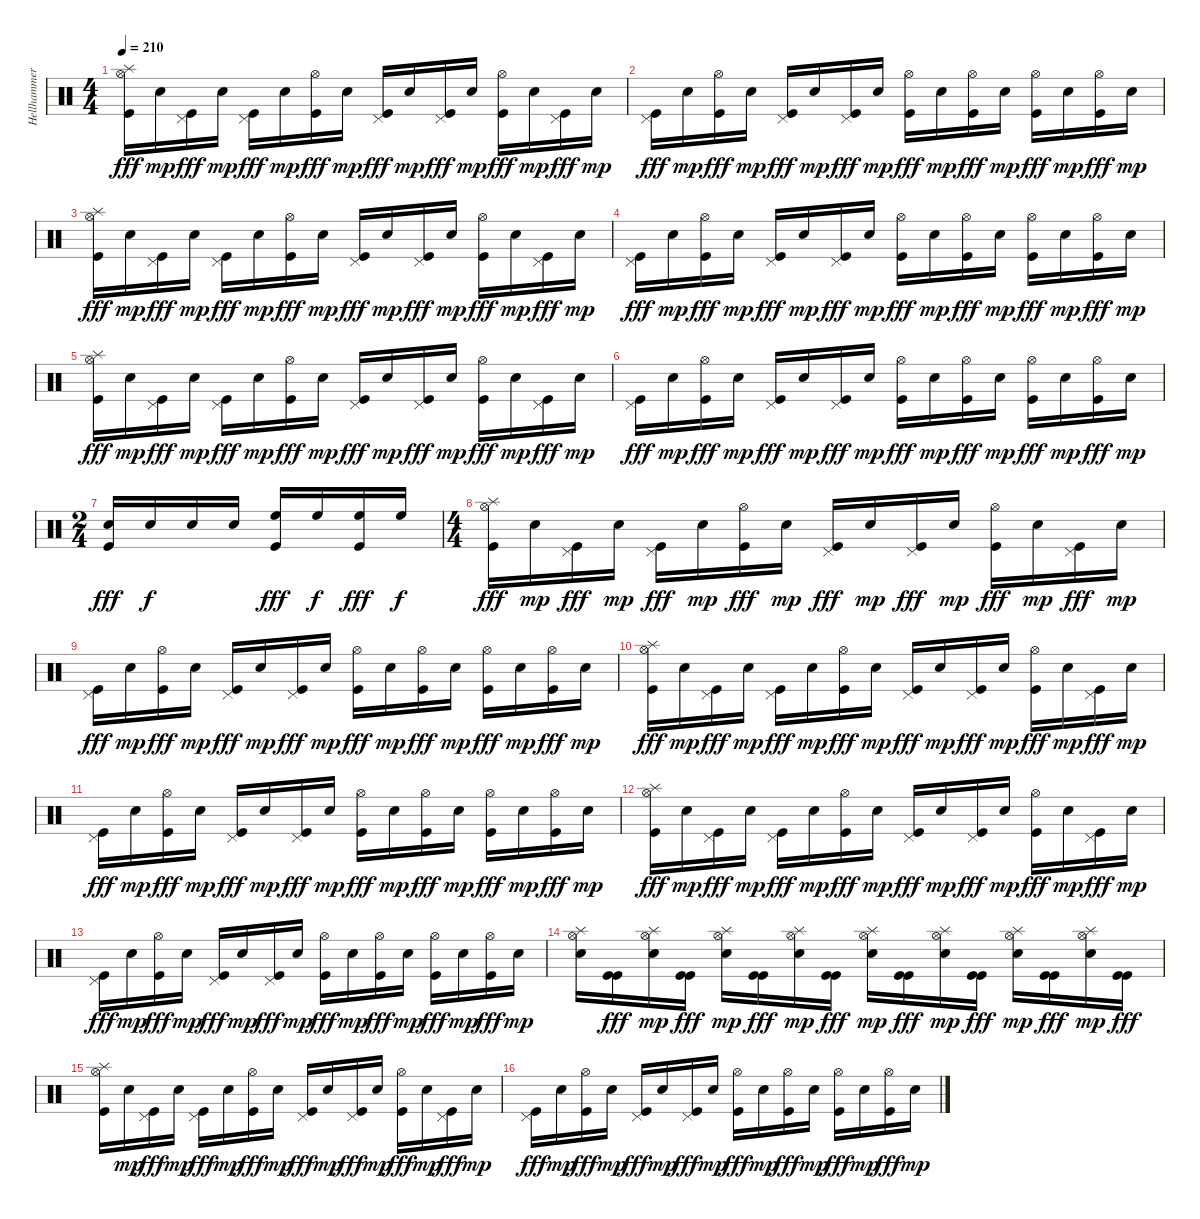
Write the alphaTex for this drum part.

\track ("Hellhammer" "Hellhammer") {instrument percussion}
\staff {score}
\articulation defaults
\ts (4 4)
\tempo 210
\clef neutral
\ks c
("Splash (hit)" "Hi-Hat (open)" "Kick (hit)").16{dy fff} "Electric Snare (hit)".16{dy mp} ("Pedal Hi-Hat (hit)" "Kick (hit)").16{dy fff} "Electric Snare (hit)".16{dy mp} ("Pedal Hi-Hat (hit)" "Kick (hit)").16{dy fff} "Electric Snare (hit)".16{dy mp} ("Hi-Hat (open)" "Kick (hit)").16{dy fff} "Electric Snare (hit)".16{dy mp} ("Pedal Hi-Hat (hit)" "Kick (hit)").16{dy fff} "Electric Snare (hit)".16{dy mp} ("Pedal Hi-Hat (hit)" "Kick (hit)").16{dy fff} "Electric Snare (hit)".16{dy mp} ("Hi-Hat (open)" "Kick (hit)").16{dy fff} "Electric Snare (hit)".16{dy mp} ("Pedal Hi-Hat (hit)" "Kick (hit)").16{dy fff} "Electric Snare (hit)".16{dy mp} |
("Pedal Hi-Hat (hit)" "Kick (hit)").16{dy fff} "Electric Snare (hit)".16{dy mp} ("Hi-Hat (open)" "Kick (hit)").16{dy fff} "Electric Snare (hit)".16{dy mp} ("Pedal Hi-Hat (hit)" "Kick (hit)").16{dy fff} "Electric Snare (hit)".16{dy mp} ("Pedal Hi-Hat (hit)" "Kick (hit)").16{dy fff} "Electric Snare (hit)".16{dy mp} ("Hi-Hat (open)" "Kick (hit)").16{dy fff} "Electric Snare (hit)".16{dy mp} ("Hi-Hat (open)" "Kick (hit)").16{dy fff} "Electric Snare (hit)".16{dy mp} ("Hi-Hat (open)" "Kick (hit)").16{dy fff} "Electric Snare (hit)".16{dy mp} ("Hi-Hat (open)" "Kick (hit)").16{dy fff} "Electric Snare (hit)".16{dy mp} |
("Splash (hit)" "Hi-Hat (open)" "Kick (hit)").16{dy fff} "Electric Snare (hit)".16{dy mp} ("Pedal Hi-Hat (hit)" "Kick (hit)").16{dy fff} "Electric Snare (hit)".16{dy mp} ("Pedal Hi-Hat (hit)" "Kick (hit)").16{dy fff} "Electric Snare (hit)".16{dy mp} ("Hi-Hat (open)" "Kick (hit)").16{dy fff} "Electric Snare (hit)".16{dy mp} ("Pedal Hi-Hat (hit)" "Kick (hit)").16{dy fff} "Electric Snare (hit)".16{dy mp} ("Pedal Hi-Hat (hit)" "Kick (hit)").16{dy fff} "Electric Snare (hit)".16{dy mp} ("Hi-Hat (open)" "Kick (hit)").16{dy fff} "Electric Snare (hit)".16{dy mp} ("Pedal Hi-Hat (hit)" "Kick (hit)").16{dy fff} "Electric Snare (hit)".16{dy mp} |
("Pedal Hi-Hat (hit)" "Kick (hit)").16{dy fff} "Electric Snare (hit)".16{dy mp} ("Hi-Hat (open)" "Kick (hit)").16{dy fff} "Electric Snare (hit)".16{dy mp} ("Pedal Hi-Hat (hit)" "Kick (hit)").16{dy fff} "Electric Snare (hit)".16{dy mp} ("Pedal Hi-Hat (hit)" "Kick (hit)").16{dy fff} "Electric Snare (hit)".16{dy mp} ("Hi-Hat (open)" "Kick (hit)").16{dy fff} "Electric Snare (hit)".16{dy mp} ("Hi-Hat (open)" "Kick (hit)").16{dy fff} "Electric Snare (hit)".16{dy mp} ("Hi-Hat (open)" "Kick (hit)").16{dy fff} "Electric Snare (hit)".16{dy mp} ("Hi-Hat (open)" "Kick (hit)").16{dy fff} "Electric Snare (hit)".16{dy mp} |
("Splash (hit)" "Hi-Hat (open)" "Kick (hit)").16{dy fff} "Electric Snare (hit)".16{dy mp} ("Pedal Hi-Hat (hit)" "Kick (hit)").16{dy fff} "Electric Snare (hit)".16{dy mp} ("Pedal Hi-Hat (hit)" "Kick (hit)").16{dy fff} "Electric Snare (hit)".16{dy mp} ("Hi-Hat (open)" "Kick (hit)").16{dy fff} "Electric Snare (hit)".16{dy mp} ("Pedal Hi-Hat (hit)" "Kick (hit)").16{dy fff} "Electric Snare (hit)".16{dy mp} ("Pedal Hi-Hat (hit)" "Kick (hit)").16{dy fff} "Electric Snare (hit)".16{dy mp} ("Hi-Hat (open)" "Kick (hit)").16{dy fff} "Electric Snare (hit)".16{dy mp} ("Pedal Hi-Hat (hit)" "Kick (hit)").16{dy fff} "Electric Snare (hit)".16{dy mp} |
("Pedal Hi-Hat (hit)" "Kick (hit)").16{dy fff} "Electric Snare (hit)".16{dy mp} ("Hi-Hat (open)" "Kick (hit)").16{dy fff} "Electric Snare (hit)".16{dy mp} ("Pedal Hi-Hat (hit)" "Kick (hit)").16{dy fff} "Electric Snare (hit)".16{dy mp} ("Pedal Hi-Hat (hit)" "Kick (hit)").16{dy fff} "Electric Snare (hit)".16{dy mp} ("Hi-Hat (open)" "Kick (hit)").16{dy fff} "Electric Snare (hit)".16{dy mp} ("Hi-Hat (open)" "Kick (hit)").16{dy fff} "Electric Snare (hit)".16{dy mp} ("Hi-Hat (open)" "Kick (hit)").16{dy fff} "Electric Snare (hit)".16{dy mp} ("Hi-Hat (open)" "Kick (hit)").16{dy fff} "Electric Snare (hit)".16{dy mp} |
\ts (2 4)
("Electric Snare (hit)" "Kick (hit)").16{dy fff} "Electric Snare (hit)".16{dy f} "Electric Snare (hit)".16 "Electric Snare (hit)".16 ("High Floor Tom (hit)" "Kick (hit)").16{dy fff} "High Floor Tom (hit)".16{dy f} ("High Floor Tom (hit)" "Kick (hit)").16{dy fff} "High Floor Tom (hit)".16{dy f} |
\ts (4 4)
("Splash (hit)" "Hi-Hat (open)" "Kick (hit)").16{dy fff} "Electric Snare (hit)".16{dy mp} ("Pedal Hi-Hat (hit)" "Kick (hit)").16{dy fff} "Electric Snare (hit)".16{dy mp} ("Pedal Hi-Hat (hit)" "Kick (hit)").16{dy fff} "Electric Snare (hit)".16{dy mp} ("Hi-Hat (open)" "Kick (hit)").16{dy fff} "Electric Snare (hit)".16{dy mp} ("Pedal Hi-Hat (hit)" "Kick (hit)").16{dy fff} "Electric Snare (hit)".16{dy mp} ("Pedal Hi-Hat (hit)" "Kick (hit)").16{dy fff} "Electric Snare (hit)".16{dy mp} ("Hi-Hat (open)" "Kick (hit)").16{dy fff} "Electric Snare (hit)".16{dy mp} ("Pedal Hi-Hat (hit)" "Kick (hit)").16{dy fff} "Electric Snare (hit)".16{dy mp} |
("Pedal Hi-Hat (hit)" "Kick (hit)").16{dy fff} "Electric Snare (hit)".16{dy mp} ("Hi-Hat (open)" "Kick (hit)").16{dy fff} "Electric Snare (hit)".16{dy mp} ("Pedal Hi-Hat (hit)" "Kick (hit)").16{dy fff} "Electric Snare (hit)".16{dy mp} ("Pedal Hi-Hat (hit)" "Kick (hit)").16{dy fff} "Electric Snare (hit)".16{dy mp} ("Hi-Hat (open)" "Kick (hit)").16{dy fff} "Electric Snare (hit)".16{dy mp} ("Hi-Hat (open)" "Kick (hit)").16{dy fff} "Electric Snare (hit)".16{dy mp} ("Hi-Hat (open)" "Kick (hit)").16{dy fff} "Electric Snare (hit)".16{dy mp} ("Hi-Hat (open)" "Kick (hit)").16{dy fff} "Electric Snare (hit)".16{dy mp} |
("Splash (hit)" "Hi-Hat (open)" "Kick (hit)").16{dy fff} "Electric Snare (hit)".16{dy mp} ("Pedal Hi-Hat (hit)" "Kick (hit)").16{dy fff} "Electric Snare (hit)".16{dy mp} ("Pedal Hi-Hat (hit)" "Kick (hit)").16{dy fff} "Electric Snare (hit)".16{dy mp} ("Hi-Hat (open)" "Kick (hit)").16{dy fff} "Electric Snare (hit)".16{dy mp} ("Pedal Hi-Hat (hit)" "Kick (hit)").16{dy fff} "Electric Snare (hit)".16{dy mp} ("Pedal Hi-Hat (hit)" "Kick (hit)").16{dy fff} "Electric Snare (hit)".16{dy mp} ("Hi-Hat (open)" "Kick (hit)").16{dy fff} "Electric Snare (hit)".16{dy mp} ("Pedal Hi-Hat (hit)" "Kick (hit)").16{dy fff} "Electric Snare (hit)".16{dy mp} |
("Pedal Hi-Hat (hit)" "Kick (hit)").16{dy fff} "Electric Snare (hit)".16{dy mp} ("Hi-Hat (open)" "Kick (hit)").16{dy fff} "Electric Snare (hit)".16{dy mp} ("Pedal Hi-Hat (hit)" "Kick (hit)").16{dy fff} "Electric Snare (hit)".16{dy mp} ("Pedal Hi-Hat (hit)" "Kick (hit)").16{dy fff} "Electric Snare (hit)".16{dy mp} ("Hi-Hat (open)" "Kick (hit)").16{dy fff} "Electric Snare (hit)".16{dy mp} ("Hi-Hat (open)" "Kick (hit)").16{dy fff} "Electric Snare (hit)".16{dy mp} ("Hi-Hat (open)" "Kick (hit)").16{dy fff} "Electric Snare (hit)".16{dy mp} ("Hi-Hat (open)" "Kick (hit)").16{dy fff} "Electric Snare (hit)".16{dy mp} |
("Splash (hit)" "Hi-Hat (open)" "Kick (hit)").16{dy fff} "Electric Snare (hit)".16{dy mp} ("Pedal Hi-Hat (hit)" "Kick (hit)").16{dy fff} "Electric Snare (hit)".16{dy mp} ("Pedal Hi-Hat (hit)" "Kick (hit)").16{dy fff} "Electric Snare (hit)".16{dy mp} ("Hi-Hat (open)" "Kick (hit)").16{dy fff} "Electric Snare (hit)".16{dy mp} ("Pedal Hi-Hat (hit)" "Kick (hit)").16{dy fff} "Electric Snare (hit)".16{dy mp} ("Pedal Hi-Hat (hit)" "Kick (hit)").16{dy fff} "Electric Snare (hit)".16{dy mp} ("Hi-Hat (open)" "Kick (hit)").16{dy fff} "Electric Snare (hit)".16{dy mp} ("Pedal Hi-Hat (hit)" "Kick (hit)").16{dy fff} "Electric Snare (hit)".16{dy mp} |
("Pedal Hi-Hat (hit)" "Kick (hit)").16{dy fff} "Electric Snare (hit)".16{dy mp} ("Hi-Hat (open)" "Kick (hit)").16{dy fff} "Electric Snare (hit)".16{dy mp} ("Pedal Hi-Hat (hit)" "Kick (hit)").16{dy fff} "Electric Snare (hit)".16{dy mp} ("Pedal Hi-Hat (hit)" "Kick (hit)").16{dy fff} "Electric Snare (hit)".16{dy mp} ("Hi-Hat (open)" "Kick (hit)").16{dy fff} "Electric Snare (hit)".16{dy mp} ("Hi-Hat (open)" "Kick (hit)").16{dy fff} "Electric Snare (hit)".16{dy mp} ("Hi-Hat (open)" "Kick (hit)").16{dy fff} "Electric Snare (hit)".16{dy mp} ("Hi-Hat (open)" "Kick (hit)").16{dy fff} "Electric Snare (hit)".16{dy mp} |
("Splash (hit)" "Hi-Hat (open)" "Electric Snare (hit)").16 ("Kick (hit)" "Kick (hit)").16{dy fff} ("Splash (hit)" "Hi-Hat (open)" "Electric Snare (hit)").16{dy mp} ("Kick (hit)" "Kick (hit)").16{dy fff} ("Splash (hit)" "Hi-Hat (open)" "Electric Snare (hit)").16{dy mp} ("Kick (hit)" "Kick (hit)").16{dy fff} ("Splash (hit)" "Hi-Hat (open)" "Electric Snare (hit)").16{dy mp} ("Kick (hit)" "Kick (hit)").16{dy fff} ("Splash (hit)" "Hi-Hat (open)" "Electric Snare (hit)").16{dy mp} ("Kick (hit)" "Kick (hit)").16{dy fff} ("Splash (hit)" "Hi-Hat (open)" "Electric Snare (hit)").16{dy mp} ("Kick (hit)" "Kick (hit)").16{dy fff} ("Splash (hit)" "Hi-Hat (open)" "Electric Snare (hit)").16{dy mp} ("Kick (hit)" "Kick (hit)").16{dy fff} ("Splash (hit)" "Hi-Hat (open)" "Electric Snare (hit)").16{dy mp} ("Kick (hit)" "Kick (hit)").16{dy fff} |
("Splash (hit)" "Hi-Hat (open)" "Kick (hit)").16 "Electric Snare (hit)".16{dy mp} ("Pedal Hi-Hat (hit)" "Kick (hit)").16{dy fff} "Electric Snare (hit)".16{dy mp} ("Pedal Hi-Hat (hit)" "Kick (hit)").16{dy fff} "Electric Snare (hit)".16{dy mp} ("Hi-Hat (open)" "Kick (hit)").16{dy fff} "Electric Snare (hit)".16{dy mp} ("Pedal Hi-Hat (hit)" "Kick (hit)").16{dy fff} "Electric Snare (hit)".16{dy mp} ("Pedal Hi-Hat (hit)" "Kick (hit)").16{dy fff} "Electric Snare (hit)".16{dy mp} ("Hi-Hat (open)" "Kick (hit)").16{dy fff} "Electric Snare (hit)".16{dy mp} ("Pedal Hi-Hat (hit)" "Kick (hit)").16{dy fff} "Electric Snare (hit)".16{dy mp} |
("Pedal Hi-Hat (hit)" "Kick (hit)").16{dy fff} "Electric Snare (hit)".16{dy mp} ("Hi-Hat (open)" "Kick (hit)").16{dy fff} "Electric Snare (hit)".16{dy mp} ("Pedal Hi-Hat (hit)" "Kick (hit)").16{dy fff} "Electric Snare (hit)".16{dy mp} ("Pedal Hi-Hat (hit)" "Kick (hit)").16{dy fff} "Electric Snare (hit)".16{dy mp} ("Hi-Hat (open)" "Kick (hit)").16{dy fff} "Electric Snare (hit)".16{dy mp} ("Hi-Hat (open)" "Kick (hit)").16{dy fff} "Electric Snare (hit)".16{dy mp} ("Hi-Hat (open)" "Kick (hit)").16{dy fff} "Electric Snare (hit)".16{dy mp} ("Hi-Hat (open)" "Kick (hit)").16{dy fff} "Electric Snare (hit)".16{dy mp}
